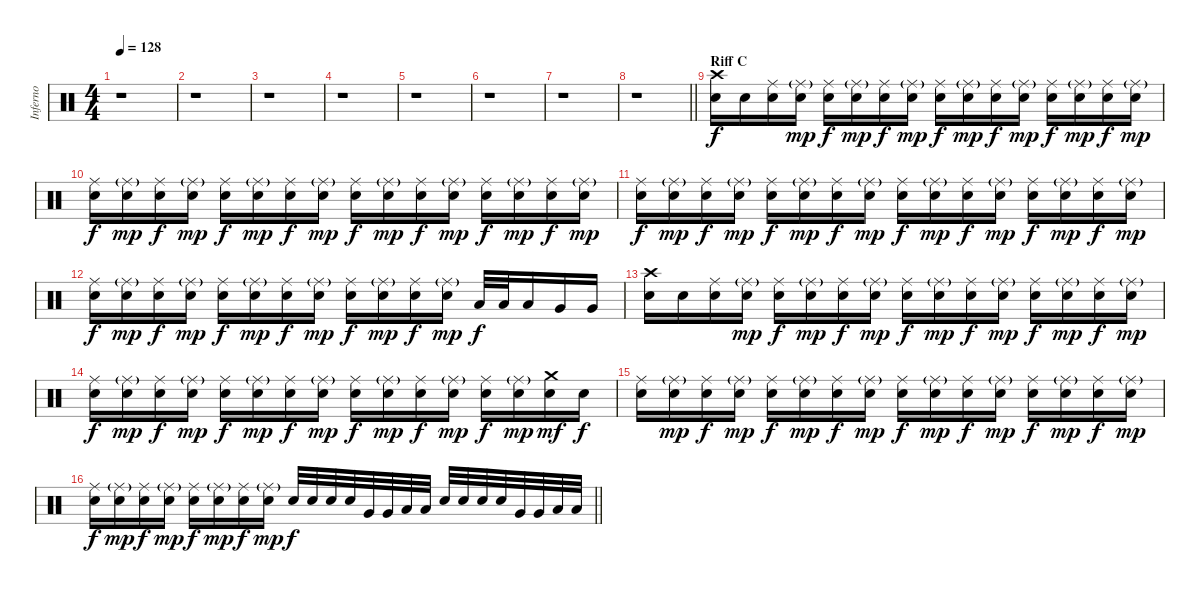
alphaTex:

\track ("Inferno" "Inferno") {instrument percussion}
\staff {score}
\articulation defaults
\ts (4 4)
\tempo 128
\clef neutral
\ks c
r.1{dy f} |
r.1 |
r.1 |
r.1 |
r.1 |
r.1 |
r.1 |
\barLineRight lightlight
r.1 |
\section ("" "Riff C")
("Crash high (hit)" "Snare (hit) 2").16 "Snare (hit) 2".16 ("Ride (middle)" "Snare (hit) 2").16 ("Ride (middle)"{g} "Snare (hit) 2").16{dy mp} ("Ride (middle)" "Snare (hit) 2").16{dy f} ("Ride (middle)"{g} "Snare (hit) 2").16{dy mp} ("Ride (middle)" "Snare (hit) 2").16{dy f} ("Ride (middle)"{g} "Snare (hit) 2").16{dy mp} ("Ride (middle)" "Snare (hit) 2").16{dy f} ("Ride (middle)"{g} "Snare (hit) 2").16{dy mp} ("Ride (middle)" "Snare (hit) 2").16{dy f} ("Ride (middle)"{g} "Snare (hit) 2").16{dy mp} ("Ride (middle)" "Snare (hit) 2").16{dy f} ("Ride (middle)"{g} "Snare (hit) 2").16{dy mp} ("Ride (middle)" "Snare (hit) 2").16{dy f} ("Ride (middle)"{g} "Snare (hit) 2").16{dy mp} |
("Ride (middle)" "Snare (hit) 2").16{dy f} ("Ride (middle)"{g} "Snare (hit) 2").16{dy mp} ("Ride (middle)" "Snare (hit) 2").16{dy f} ("Ride (middle)"{g} "Snare (hit) 2").16{dy mp} ("Ride (middle)" "Snare (hit) 2").16{dy f} ("Ride (middle)"{g} "Snare (hit) 2").16{dy mp} ("Ride (middle)" "Snare (hit) 2").16{dy f} ("Ride (middle)"{g} "Snare (hit) 2").16{dy mp} ("Ride (middle)" "Snare (hit) 2").16{dy f} ("Ride (middle)"{g} "Snare (hit) 2").16{dy mp} ("Ride (middle)" "Snare (hit) 2").16{dy f} ("Ride (middle)"{g} "Snare (hit) 2").16{dy mp} ("Ride (middle)" "Snare (hit) 2").16{dy f} ("Ride (middle)"{g} "Snare (hit) 2").16{dy mp} ("Ride (middle)" "Snare (hit) 2").16{dy f} ("Ride (middle)"{g} "Snare (hit) 2").16{dy mp} |
("Ride (middle)" "Snare (hit) 2").16{dy f} ("Ride (middle)"{g} "Snare (hit) 2").16{dy mp} ("Ride (middle)" "Snare (hit) 2").16{dy f} ("Ride (middle)"{g} "Snare (hit) 2").16{dy mp} ("Ride (middle)" "Snare (hit) 2").16{dy f} ("Ride (middle)"{g} "Snare (hit) 2").16{dy mp} ("Ride (middle)" "Snare (hit) 2").16{dy f} ("Ride (middle)"{g} "Snare (hit) 2").16{dy mp} ("Ride (middle)" "Snare (hit) 2").16{dy f} ("Ride (middle)"{g} "Snare (hit) 2").16{dy mp} ("Ride (middle)" "Snare (hit) 2").16{dy f} ("Ride (middle)"{g} "Snare (hit) 2").16{dy mp} ("Ride (middle)" "Snare (hit) 2").16{dy f} ("Ride (middle)"{g} "Snare (hit) 2").16{dy mp} ("Ride (middle)" "Snare (hit) 2").16{dy f} ("Ride (middle)"{g} "Snare (hit) 2").16{dy mp} |
("Ride (middle)" "Snare (hit) 2").16{dy f} ("Ride (middle)"{g} "Snare (hit) 2").16{dy mp} ("Ride (middle)" "Snare (hit) 2").16{dy f} ("Ride (middle)"{g} "Snare (hit) 2").16{dy mp} ("Ride (middle)" "Snare (hit) 2").16{dy f} ("Ride (middle)"{g} "Snare (hit) 2").16{dy mp} ("Ride (middle)" "Snare (hit) 2").16{dy f} ("Ride (middle)"{g} "Snare (hit) 2").16{dy mp} ("Ride (middle)" "Snare (hit) 2").16{dy f} ("Ride (middle)"{g} "Snare (hit) 2").16{dy mp} ("Ride (middle)" "Snare (hit) 2").16{dy f} ("Ride (middle)"{g} "Snare (hit) 2").16{dy mp} "Low Tom (hit)".32{dy f} "Low Tom (hit)".32 "Low Tom (hit)".16 "Very Low Tom (hit)".16 "Very Low Tom (hit)".16 |
("Crash high (hit)" "Snare (hit) 2").16 "Snare (hit) 2".16 ("Ride (middle)" "Snare (hit) 2").16 ("Ride (middle)"{g} "Snare (hit) 2").16{dy mp} ("Ride (middle)" "Snare (hit) 2").16{dy f} ("Ride (middle)"{g} "Snare (hit) 2").16{dy mp} ("Ride (middle)" "Snare (hit) 2").16{dy f} ("Ride (middle)"{g} "Snare (hit) 2").16{dy mp} ("Ride (middle)" "Snare (hit) 2").16{dy f} ("Ride (middle)"{g} "Snare (hit) 2").16{dy mp} ("Ride (middle)" "Snare (hit) 2").16{dy f} ("Ride (middle)"{g} "Snare (hit) 2").16{dy mp} ("Ride (middle)" "Snare (hit) 2").16{dy f} ("Ride (middle)"{g} "Snare (hit) 2").16{dy mp} ("Ride (middle)" "Snare (hit) 2").16{dy f} ("Ride (middle)"{g} "Snare (hit) 2").16{dy mp} |
("Ride (middle)" "Snare (hit) 2").16{dy f} ("Ride (middle)"{g} "Snare (hit) 2").16{dy mp} ("Ride (middle)" "Snare (hit) 2").16{dy f} ("Ride (middle)"{g} "Snare (hit) 2").16{dy mp} ("Ride (middle)" "Snare (hit) 2").16{dy f} ("Ride (middle)"{g} "Snare (hit) 2").16{dy mp} ("Ride (middle)" "Snare (hit) 2").16{dy f} ("Ride (middle)"{g} "Snare (hit) 2").16{dy mp} ("Ride (middle)" "Snare (hit) 2").16{dy f} ("Ride (middle)"{g} "Snare (hit) 2").16{dy mp} ("Ride (middle)" "Snare (hit) 2").16{dy f} ("Ride (middle)"{g} "Snare (hit) 2").16{dy mp} ("Ride (middle)" "Snare (hit) 2").16{dy f} ("Ride (middle)"{g} "Snare (hit) 2").16{dy mp} ("Crash medium (hit)" "Snare (hit) 2").16{dy mf} "Snare (hit) 2".16{dy f} |
("Ride (middle)" "Snare (hit) 2").16 ("Ride (middle)"{g} "Snare (hit) 2").16{dy mp} ("Ride (middle)" "Snare (hit) 2").16{dy f} ("Ride (middle)"{g} "Snare (hit) 2").16{dy mp} ("Ride (middle)" "Snare (hit) 2").16{dy f} ("Ride (middle)"{g} "Snare (hit) 2").16{dy mp} ("Ride (middle)" "Snare (hit) 2").16{dy f} ("Ride (middle)"{g} "Snare (hit) 2").16{dy mp} ("Ride (middle)" "Snare (hit) 2").16{dy f} ("Ride (middle)"{g} "Snare (hit) 2").16{dy mp} ("Ride (middle)" "Snare (hit) 2").16{dy f} ("Ride (middle)"{g} "Snare (hit) 2").16{dy mp} ("Ride (middle)" "Snare (hit) 2").16{dy f} ("Ride (middle)"{g} "Snare (hit) 2").16{dy mp} ("Ride (middle)" "Snare (hit) 2").16{dy f} ("Ride (middle)"{g} "Snare (hit) 2").16{dy mp} |
\barLineRight lightlight
("Ride (middle)" "Snare (hit) 2").16{dy f} ("Ride (middle)"{g} "Snare (hit) 2").16{dy mp} ("Ride (middle)" "Snare (hit) 2").16{dy f} ("Ride (middle)"{g} "Snare (hit) 2").16{dy mp} ("Ride (middle)" "Snare (hit) 2").16{dy f} ("Ride (middle)"{g} "Snare (hit) 2").16{dy mp} ("Ride (middle)" "Snare (hit) 2").16{dy f} ("Ride (middle)"{g} "Snare (hit) 2").16{dy mp} "Snare (hit) 2".32{dy f} "Snare (hit) 2".32 "Snare (hit) 2".32 "Snare (hit) 2".32 "Very Low Tom (hit)".32 "Very Low Tom (hit)".32 "Low Floor Tom (hit)".32 "Low Floor Tom (hit)".32 "Snare (hit) 2".32 "Snare (hit) 2".32 "Snare (hit) 2".32 "Snare (hit) 2".32 "Very Low Tom (hit)".32 "Very Low Tom (hit)".32 "Low Floor Tom (hit)".32 "Low Floor Tom (hit)".32
